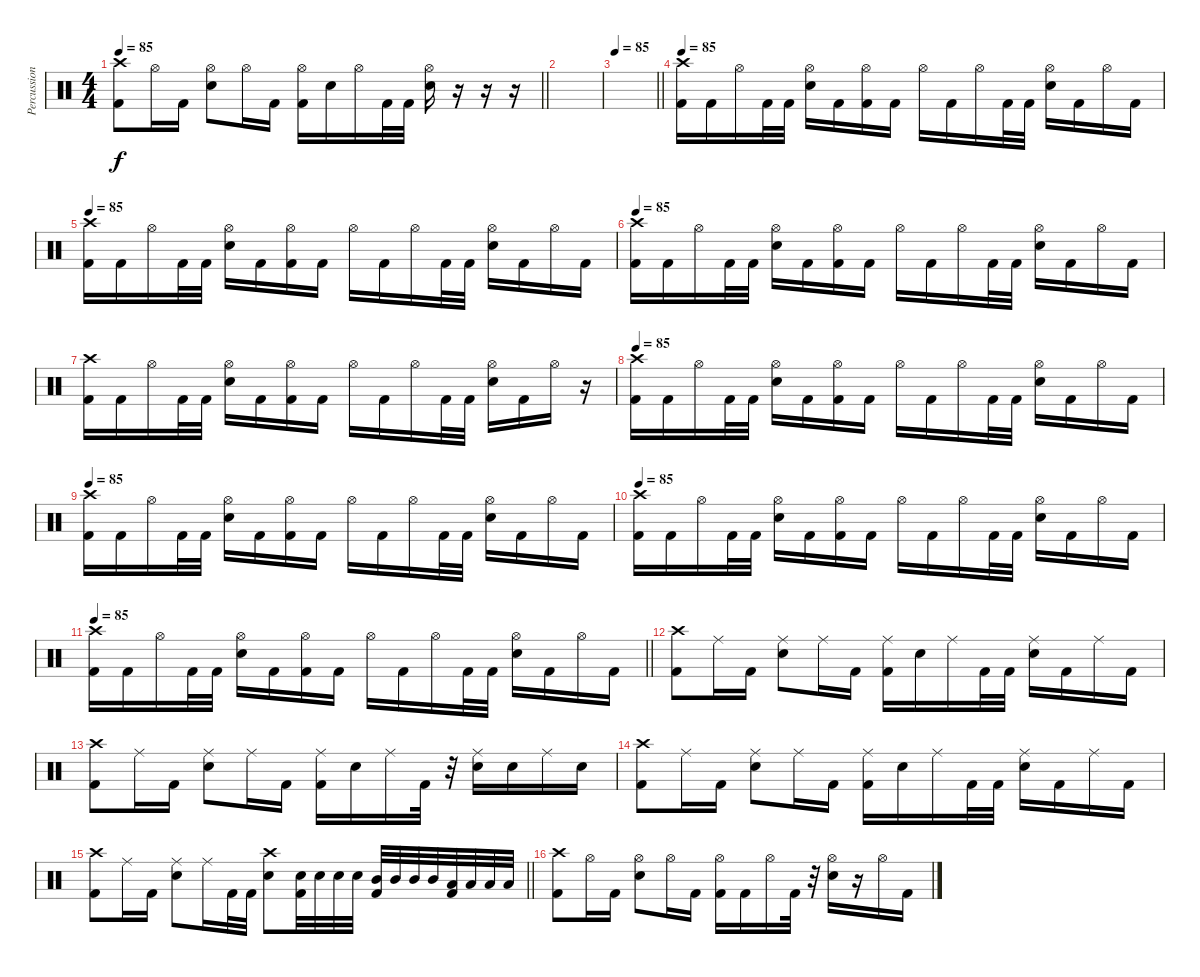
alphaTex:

\track ("Percussion" "Percussion") {instrument percussion}
\staff {score}
\articulation defaults
\ts (4 4)
\tempo 85
\clef neutral
\barLineRight lightlight
\ks c
("Crash high (hit)" "Kick (hit) 2").8{dy f} "Hi-Hat (open)".16 "Kick (hit) 2".16 ("Hi-Hat (open)" "Electric Snare (hit)").8 "Hi-Hat (open)".16 "Kick (hit) 2".16 ("Hi-Hat (open)" "Kick (hit) 2").16 "Electric Snare (hit)".16 "Hi-Hat (open)".16 "Kick (hit) 2".32 "Kick (hit) 2".32 ("Hi-Hat (open)" "Electric Snare (hit)").16 r.16 r.16 r.16 |
|
\tempo 85
\barLineRight lightlight
|
\tempo 85
("Crash high (hit)" "Kick (hit) 2").16 "Kick (hit) 2".16 "Hi-Hat (open)".16 "Kick (hit) 2".32 "Kick (hit) 2".32 ("Hi-Hat (open)" "Electric Snare (hit)").16 "Kick (hit) 2".16 ("Hi-Hat (open)" "Kick (hit) 2").16 "Kick (hit) 2".16 "Hi-Hat (open)".16 "Kick (hit) 2".16 "Hi-Hat (open)".16 "Kick (hit) 2".32 "Kick (hit) 2".32 ("Hi-Hat (open)" "Electric Snare (hit)").16 "Kick (hit) 2".16 "Hi-Hat (open)".16 "Kick (hit) 2".16 |
\tempo 85
("Crash high (hit)" "Kick (hit) 2").16 "Kick (hit) 2".16 "Hi-Hat (open)".16 "Kick (hit) 2".32 "Kick (hit) 2".32 ("Hi-Hat (open)" "Electric Snare (hit)").16 "Kick (hit) 2".16 ("Hi-Hat (open)" "Kick (hit) 2").16 "Kick (hit) 2".16 "Hi-Hat (open)".16 "Kick (hit) 2".16 "Hi-Hat (open)".16 "Kick (hit) 2".32 "Kick (hit) 2".32 ("Hi-Hat (open)" "Electric Snare (hit)").16 "Kick (hit) 2".16 "Hi-Hat (open)".16 "Kick (hit) 2".16 |
\tempo 85
("Crash high (hit)" "Kick (hit) 2").16 "Kick (hit) 2".16 "Hi-Hat (open)".16 "Kick (hit) 2".32 "Kick (hit) 2".32 ("Hi-Hat (open)" "Electric Snare (hit)").16 "Kick (hit) 2".16 ("Hi-Hat (open)" "Kick (hit) 2").16 "Kick (hit) 2".16 "Hi-Hat (open)".16 "Kick (hit) 2".16 "Hi-Hat (open)".16 "Kick (hit) 2".32 "Kick (hit) 2".32 ("Hi-Hat (open)" "Electric Snare (hit)").16 "Kick (hit) 2".16 "Hi-Hat (open)".16 "Kick (hit) 2".16 |
("Crash high (hit)" "Kick (hit) 2").16 "Kick (hit) 2".16 "Hi-Hat (open)".16 "Kick (hit) 2".32 "Kick (hit) 2".32 ("Hi-Hat (open)" "Electric Snare (hit)").16 "Kick (hit) 2".16 ("Hi-Hat (open)" "Kick (hit) 2").16 "Kick (hit) 2".16 "Hi-Hat (open)".16 "Kick (hit) 2".16 "Hi-Hat (open)".16 "Kick (hit) 2".32 "Kick (hit) 2".32 ("Hi-Hat (open)" "Electric Snare (hit)").16 "Kick (hit) 2".16 "Hi-Hat (open)".16 r.16 |
\tempo 85
("Crash high (hit)" "Kick (hit) 2").16 "Kick (hit) 2".16 "Hi-Hat (open)".16 "Kick (hit) 2".32 "Kick (hit) 2".32 ("Hi-Hat (open)" "Electric Snare (hit)").16 "Kick (hit) 2".16 ("Hi-Hat (open)" "Kick (hit) 2").16 "Kick (hit) 2".16 "Hi-Hat (open)".16 "Kick (hit) 2".16 "Hi-Hat (open)".16 "Kick (hit) 2".32 "Kick (hit) 2".32 ("Hi-Hat (open)" "Electric Snare (hit)").16 "Kick (hit) 2".16 "Hi-Hat (open)".16 "Kick (hit) 2".16 |
\tempo 85
("Crash high (hit)" "Kick (hit) 2").16 "Kick (hit) 2".16 "Hi-Hat (open)".16 "Kick (hit) 2".32 "Kick (hit) 2".32 ("Hi-Hat (open)" "Electric Snare (hit)").16 "Kick (hit) 2".16 ("Hi-Hat (open)" "Kick (hit) 2").16 "Kick (hit) 2".16 "Hi-Hat (open)".16 "Kick (hit) 2".16 "Hi-Hat (open)".16 "Kick (hit) 2".32 "Kick (hit) 2".32 ("Hi-Hat (open)" "Electric Snare (hit)").16 "Kick (hit) 2".16 "Hi-Hat (open)".16 "Kick (hit) 2".16 |
\tempo 85
("Crash high (hit)" "Kick (hit) 2").16 "Kick (hit) 2".16 "Hi-Hat (open)".16 "Kick (hit) 2".32 "Kick (hit) 2".32 ("Hi-Hat (open)" "Electric Snare (hit)").16 "Kick (hit) 2".16 ("Hi-Hat (open)" "Kick (hit) 2").16 "Kick (hit) 2".16 "Hi-Hat (open)".16 "Kick (hit) 2".16 "Hi-Hat (open)".16 "Kick (hit) 2".32 "Kick (hit) 2".32 ("Hi-Hat (open)" "Electric Snare (hit)").16 "Kick (hit) 2".16 "Hi-Hat (open)".16 "Kick (hit) 2".16 |
\tempo 85
\barLineRight lightlight
("Crash high (hit)" "Kick (hit) 2").16 "Kick (hit) 2".16 "Hi-Hat (open)".16 "Kick (hit) 2".32 "Kick (hit) 2".32 ("Hi-Hat (open)" "Electric Snare (hit)").16 "Kick (hit) 2".16 ("Hi-Hat (open)" "Kick (hit) 2").16 "Kick (hit) 2".16 "Hi-Hat (open)".16 "Kick (hit) 2".16 "Hi-Hat (open)".16 "Kick (hit) 2".32 "Kick (hit) 2".32 ("Hi-Hat (open)" "Electric Snare (hit)").16 "Kick (hit) 2".16 "Hi-Hat (open)".16 "Kick (hit) 2".16 |
("Crash high (hit)" "Kick (hit) 2").8 "Ride (middle)".16 "Kick (hit) 2".16 ("Ride (middle)" "Electric Snare (hit)").8 "Ride (middle)".16 "Kick (hit) 2".16 ("Ride (middle)" "Kick (hit) 2").16 "Electric Snare (hit)".16 "Ride (middle)".16 "Kick (hit) 2".32 "Kick (hit) 2".32 ("Ride (middle)" "Electric Snare (hit)").16 "Kick (hit) 2".16 "Ride (middle)".16 "Kick (hit) 2".16 |
("Crash high (hit)" "Kick (hit) 2").8 "Ride (middle)".16 "Kick (hit) 2".16 ("Ride (middle)" "Electric Snare (hit)").8 "Ride (middle)".16 "Kick (hit) 2".16 ("Ride (middle)" "Kick (hit) 2").16 "Electric Snare (hit)".16 "Ride (middle)".16 "Kick (hit) 2".32 r.32 ("Ride (middle)" "Electric Snare (hit)").16 "Electric Snare (hit)".16 "Ride (middle)".16 "Electric Snare (hit)".16 |
("Crash high (hit)" "Kick (hit) 2").8 "Ride (middle)".16 "Kick (hit) 2".16 ("Ride (middle)" "Electric Snare (hit)").8 "Ride (middle)".16 "Kick (hit) 2".16 ("Ride (middle)" "Kick (hit) 2").16 "Electric Snare (hit)".16 "Ride (middle)".16 "Kick (hit) 2".32 "Kick (hit) 2".32 ("Ride (middle)" "Electric Snare (hit)").16 "Kick (hit) 2".16 "Ride (middle)".16 "Kick (hit) 2".16 |
\barLineRight lightlight
("Crash high (hit)" "Kick (hit) 2").8 "Ride (middle)".16 "Kick (hit) 2".16 ("Ride (middle)" "Electric Snare (hit)").8 "Ride (middle)".16 "Kick (hit) 2".32 "Kick (hit) 2".32 ("Crash high (hit)" "Electric Snare (hit)").8 ("Electric Snare (hit)" "Kick (hit) 2").32 "Electric Snare (hit)".32 "Electric Snare (hit)".32 "Electric Snare (hit)".32 ("Mid Tom (hit)" "Kick (hit) 2").32 "Mid Tom (hit)".32 "Mid Tom (hit)".32 "Mid Tom (hit)".32 ("Low Tom (hit)" "Kick (hit) 2").32 "Low Tom (hit)".32 "Low Tom (hit)".32 "Low Tom (hit)".32 |
("Crash high (hit)" "Kick (hit) 2").8 "Hi-Hat (open)".16 "Kick (hit) 2".16 ("Hi-Hat (open)" "Electric Snare (hit)").8 "Hi-Hat (open)".16 "Kick (hit) 2".16 ("Hi-Hat (open)" "Kick (hit) 2").16 "Kick (hit) 2".16 "Hi-Hat (open)".16 "Kick (hit) 2".32 r.32 ("Hi-Hat (open)" "Electric Snare (hit)").16 r.16 "Hi-Hat (open)".16 "Kick (hit) 2".16
